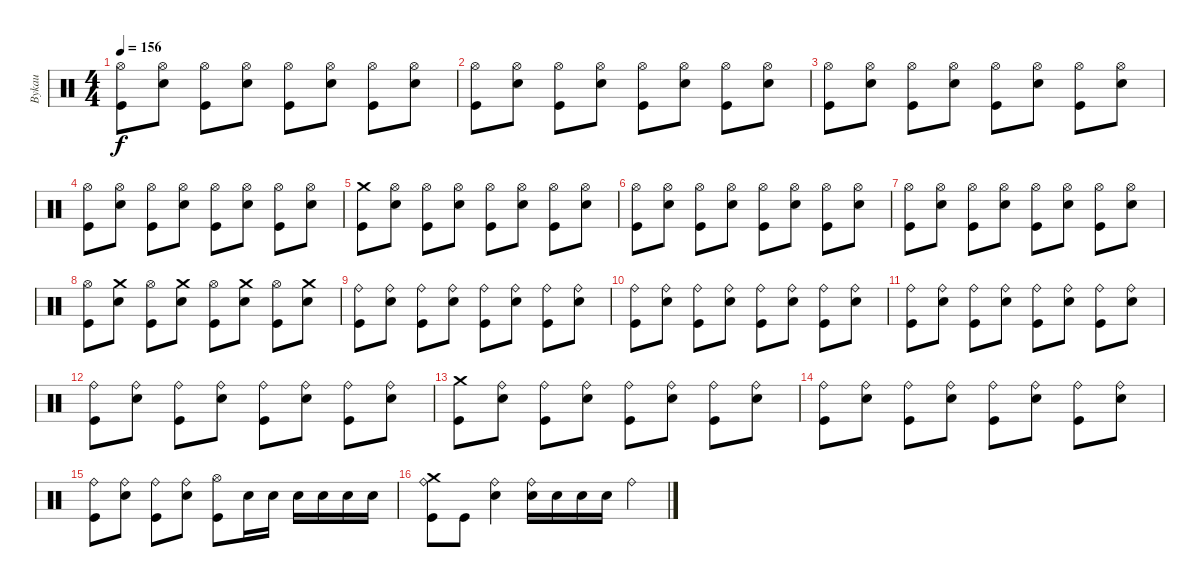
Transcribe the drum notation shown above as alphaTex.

\track ("Bykau" "Bykau") {instrument percussion}
\staff {score}
\articulation defaults
\ts (4 4)
\tempo 156
\clef neutral
\ks c
("Hi-Hat (open)" "Kick (hit)").8{dy f} ("Hi-Hat (open)" "Electric Snare (hit)").8 ("Hi-Hat (open)" "Kick (hit)").8 ("Hi-Hat (open)" "Electric Snare (hit)").8 ("Hi-Hat (open)" "Kick (hit)").8 ("Hi-Hat (open)" "Electric Snare (hit)").8 ("Hi-Hat (open)" "Kick (hit)").8 ("Hi-Hat (open)" "Electric Snare (hit)").8 |
("Hi-Hat (open)" "Kick (hit)").8 ("Hi-Hat (open)" "Electric Snare (hit)").8 ("Hi-Hat (open)" "Kick (hit)").8 ("Hi-Hat (open)" "Electric Snare (hit)").8 ("Hi-Hat (open)" "Kick (hit)").8 ("Hi-Hat (open)" "Electric Snare (hit)").8 ("Hi-Hat (open)" "Kick (hit)").8 ("Hi-Hat (open)" "Electric Snare (hit)").8 |
("Hi-Hat (open)" "Kick (hit)").8 ("Hi-Hat (open)" "Electric Snare (hit)").8 ("Hi-Hat (open)" "Kick (hit)").8 ("Hi-Hat (open)" "Electric Snare (hit)").8 ("Hi-Hat (open)" "Kick (hit)").8 ("Hi-Hat (open)" "Electric Snare (hit)").8 ("Hi-Hat (open)" "Kick (hit)").8 ("Hi-Hat (open)" "Electric Snare (hit)").8 |
("Hi-Hat (open)" "Kick (hit)").8 ("Hi-Hat (open)" "Electric Snare (hit)").8 ("Hi-Hat (open)" "Kick (hit)").8 ("Hi-Hat (open)" "Electric Snare (hit)").8 ("Hi-Hat (open)" "Kick (hit)").8 ("Hi-Hat (open)" "Electric Snare (hit)").8 ("Hi-Hat (open)" "Kick (hit)").8 ("Hi-Hat (open)" "Electric Snare (hit)").8 |
("Crash medium (hit)" "Kick (hit)").8 ("Hi-Hat (open)" "Electric Snare (hit)").8 ("Hi-Hat (open)" "Kick (hit)").8 ("Hi-Hat (open)" "Electric Snare (hit)").8 ("Hi-Hat (open)" "Kick (hit)").8 ("Hi-Hat (open)" "Electric Snare (hit)").8 ("Hi-Hat (open)" "Kick (hit)").8 ("Hi-Hat (open)" "Electric Snare (hit)").8 |
("Hi-Hat (open)" "Kick (hit)").8 ("Hi-Hat (open)" "Electric Snare (hit)").8 ("Hi-Hat (open)" "Kick (hit)").8 ("Hi-Hat (open)" "Electric Snare (hit)").8 ("Hi-Hat (open)" "Kick (hit)").8 ("Hi-Hat (open)" "Electric Snare (hit)").8 ("Hi-Hat (open)" "Kick (hit)").8 ("Hi-Hat (open)" "Electric Snare (hit)").8 |
("Hi-Hat (open)" "Kick (hit)").8 ("Hi-Hat (open)" "Electric Snare (hit)").8 ("Hi-Hat (open)" "Kick (hit)").8 ("Hi-Hat (open)" "Electric Snare (hit)").8 ("Hi-Hat (open)" "Kick (hit)").8 ("Hi-Hat (open)" "Electric Snare (hit)").8 ("Hi-Hat (open)" "Kick (hit)").8 ("Hi-Hat (open)" "Electric Snare (hit)").8 |
("Hi-Hat (open)" "Kick (hit)").8 ("Crash medium (hit)" "Electric Snare (hit)").8 ("Hi-Hat (open)" "Kick (hit)").8 ("Crash medium (hit)" "Electric Snare (hit)").8 ("Hi-Hat (open)" "Kick (hit)").8 ("Crash medium (hit)" "Electric Snare (hit)").8 ("Hi-Hat (open)" "Kick (hit)").8 ("Crash medium (hit)" "Electric Snare (hit)").8 |
("Ride (bell)" "Kick (hit)").8 ("Ride (bell)" "Electric Snare (hit)").8 ("Ride (bell)" "Kick (hit)").8 ("Ride (bell)" "Electric Snare (hit)").8 ("Ride (bell)" "Kick (hit)").8 ("Ride (bell)" "Electric Snare (hit)").8 ("Ride (bell)" "Kick (hit)").8 ("Ride (bell)" "Electric Snare (hit)").8 |
("Ride (bell)" "Kick (hit)").8 ("Ride (bell)" "Electric Snare (hit)").8 ("Ride (bell)" "Kick (hit)").8 ("Ride (bell)" "Electric Snare (hit)").8 ("Ride (bell)" "Kick (hit)").8 ("Ride (bell)" "Electric Snare (hit)").8 ("Ride (bell)" "Kick (hit)").8 ("Ride (bell)" "Electric Snare (hit)").8 |
("Ride (bell)" "Kick (hit)").8 ("Ride (bell)" "Electric Snare (hit)").8 ("Ride (bell)" "Kick (hit)").8 ("Ride (bell)" "Electric Snare (hit)").8 ("Ride (bell)" "Kick (hit)").8 ("Ride (bell)" "Electric Snare (hit)").8 ("Ride (bell)" "Kick (hit)").8 ("Ride (bell)" "Electric Snare (hit)").8 |
("Ride (bell)" "Kick (hit)").8 ("Ride (bell)" "Electric Snare (hit)").8 ("Ride (bell)" "Kick (hit)").8 ("Ride (bell)" "Electric Snare (hit)").8 ("Ride (bell)" "Kick (hit)").8 ("Ride (bell)" "Electric Snare (hit)").8 ("Ride (bell)" "Kick (hit)").8 ("Ride (bell)" "Electric Snare (hit)").8 |
("Crash medium (hit)" "Kick (hit)").8 ("Ride (bell)" "Electric Snare (hit)").8 ("Ride (bell)" "Kick (hit)").8 ("Ride (bell)" "Electric Snare (hit)").8 ("Ride (bell)" "Kick (hit)").8 ("Ride (bell)" "Electric Snare (hit)").8 ("Ride (bell)" "Kick (hit)").8 ("Ride (bell)" "Electric Snare (hit)").8 |
("Ride (bell)" "Kick (hit)").8 ("Ride (bell)" "Electric Snare (hit)").8 ("Ride (bell)" "Kick (hit)").8 ("Ride (bell)" "Electric Snare (hit)").8 ("Ride (bell)" "Kick (hit)").8 ("Ride (bell)" "Electric Snare (hit)").8 ("Ride (bell)" "Kick (hit)").8 ("Ride (bell)" "Electric Snare (hit)").8 |
("Ride (bell)" "Kick (hit)").8 ("Ride (bell)" "Electric Snare (hit)").8 ("Ride (bell)" "Kick (hit)").8 ("Ride (bell)" "Electric Snare (hit)").8 ("Hi-Hat (open)" "Kick (hit)").8 "Electric Snare (hit)".16 "Electric Snare (hit)".16 "Electric Snare (hit)".16 "Electric Snare (hit)".16 "Electric Snare (hit)".16 "Electric Snare (hit)".16 |
("Ride (bell)" "Crash medium (hit)" "Kick (hit)").8 "Kick (hit)".8 ("Ride (bell)" "Electric Snare (hit)").4 ("Ride (bell)" "Electric Snare (hit)").16 "Electric Snare (hit)".16 "Electric Snare (hit)".16 "Electric Snare (hit)".16 "Ride (bell)".4
